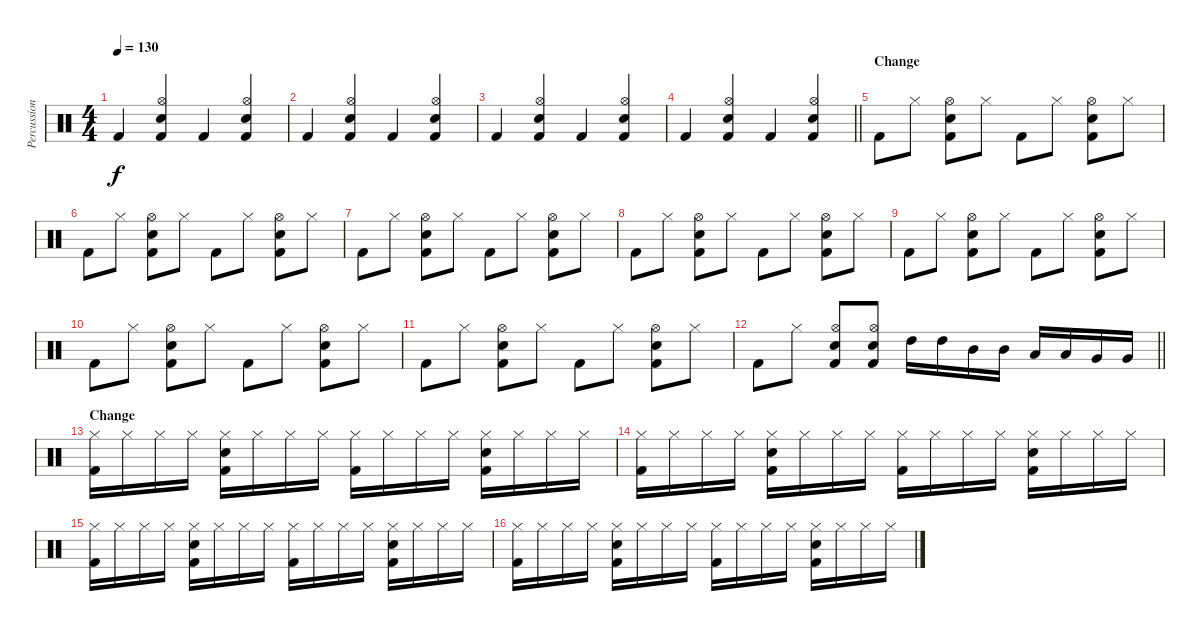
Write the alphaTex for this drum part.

\track ("Percussion" "Percussion") {instrument percussion}
\staff {score}
\articulation defaults
\ts (4 4)
\tempo 130
\clef neutral
\ks c "Kick (hit) 2".4{dy f}
("Hi-Hat (open)" "Electric Snare (hit)" "Kick (hit) 2").4 "Kick (hit) 2".4 ("Hi-Hat (open)" "Electric Snare (hit)" "Kick (hit) 2").4 |
"Kick (hit) 2".4 ("Hi-Hat (open)" "Electric Snare (hit)" "Kick (hit) 2").4 "Kick (hit) 2".4 ("Hi-Hat (open)" "Electric Snare (hit)" "Kick (hit) 2").4 |
"Kick (hit) 2".4 ("Hi-Hat (open)" "Electric Snare (hit)" "Kick (hit) 2").4 "Kick (hit) 2".4 ("Hi-Hat (open)" "Electric Snare (hit)" "Kick (hit) 2").4 |
\barLineRight lightlight "Kick (hit) 2".4
("Hi-Hat (open)" "Electric Snare (hit)" "Kick (hit) 2").4 "Kick (hit) 2".4 ("Hi-Hat (open)" "Electric Snare (hit)" "Kick (hit) 2").4 |
\section ("" "Change")
"Kick (hit) 2".8 "Hi-Hat (closed)".8 ("Hi-Hat (open)" "Electric Snare (hit)" "Kick (hit) 2").8 "Hi-Hat (closed)".8 "Kick (hit) 2".8 "Hi-Hat (closed)".8 ("Hi-Hat (open)" "Electric Snare (hit)" "Kick (hit) 2").8 "Hi-Hat (closed)".8 |
"Kick (hit) 2".8 "Hi-Hat (closed)".8 ("Hi-Hat (open)" "Electric Snare (hit)" "Kick (hit) 2").8 "Hi-Hat (closed)".8 "Kick (hit) 2".8 "Hi-Hat (closed)".8 ("Hi-Hat (open)" "Electric Snare (hit)" "Kick (hit) 2").8 "Hi-Hat (closed)".8 |
"Kick (hit) 2".8 "Hi-Hat (closed)".8 ("Hi-Hat (open)" "Electric Snare (hit)" "Kick (hit) 2").8 "Hi-Hat (closed)".8 "Kick (hit) 2".8 "Hi-Hat (closed)".8 ("Hi-Hat (open)" "Electric Snare (hit)" "Kick (hit) 2").8 "Hi-Hat (closed)".8 |
"Kick (hit) 2".8 "Hi-Hat (closed)".8 ("Hi-Hat (open)" "Electric Snare (hit)" "Kick (hit) 2").8 "Hi-Hat (closed)".8 "Kick (hit) 2".8 "Hi-Hat (closed)".8 ("Hi-Hat (open)" "Electric Snare (hit)" "Kick (hit) 2").8 "Hi-Hat (closed)".8 |
"Kick (hit) 2".8 "Hi-Hat (closed)".8 ("Hi-Hat (open)" "Electric Snare (hit)" "Kick (hit) 2").8 "Hi-Hat (closed)".8 "Kick (hit) 2".8 "Hi-Hat (closed)".8 ("Hi-Hat (open)" "Electric Snare (hit)" "Kick (hit) 2").8 "Hi-Hat (closed)".8 |
"Kick (hit) 2".8 "Hi-Hat (closed)".8 ("Hi-Hat (open)" "Electric Snare (hit)" "Kick (hit) 2").8 "Hi-Hat (closed)".8 "Kick (hit) 2".8 "Hi-Hat (closed)".8 ("Hi-Hat (open)" "Electric Snare (hit)" "Kick (hit) 2").8 "Hi-Hat (closed)".8 |
"Kick (hit) 2".8 "Hi-Hat (closed)".8 ("Hi-Hat (open)" "Electric Snare (hit)" "Kick (hit) 2").8 "Hi-Hat (closed)".8 "Kick (hit) 2".8 "Hi-Hat (closed)".8 ("Hi-Hat (open)" "Electric Snare (hit)" "Kick (hit) 2").8 "Hi-Hat (closed)".8 |
\barLineRight lightlight "Kick (hit) 2".8 "Hi-Hat (closed)".8
("Hi-Hat (open)" "Electric Snare (hit)" "Kick (hit) 2").8 ("Hi-Hat (open)" "Electric Snare (hit)" "Kick (hit) 2").8 "High Tom (hit)".16 "High Tom (hit)".16 "Mid Tom (hit)".16 "Mid Tom (hit)".16 "Low Tom (hit)".16 "Low Tom (hit)".16 "Very Low Tom (hit)".16 "Very Low Tom (hit)".16 |
\section ("" "Change")
("Hi-Hat (closed)" "Kick (hit) 2").16 "Hi-Hat (closed)".16 "Hi-Hat (closed)".16 "Hi-Hat (closed)".16 ("Hi-Hat (closed)" "Electric Snare (hit)" "Kick (hit) 2").16 "Hi-Hat (closed)".16 "Hi-Hat (closed)".16 "Hi-Hat (closed)".16 ("Hi-Hat (closed)" "Kick (hit) 2").16 "Hi-Hat (closed)".16 "Hi-Hat (closed)".16 "Hi-Hat (closed)".16 ("Hi-Hat (closed)" "Electric Snare (hit)" "Kick (hit) 2").16 "Hi-Hat (closed)".16 "Hi-Hat (closed)".16 "Hi-Hat (closed)".16 |
("Hi-Hat (closed)" "Kick (hit) 2").16 "Hi-Hat (closed)".16 "Hi-Hat (closed)".16 "Hi-Hat (closed)".16 ("Hi-Hat (closed)" "Electric Snare (hit)" "Kick (hit) 2").16 "Hi-Hat (closed)".16 "Hi-Hat (closed)".16 "Hi-Hat (closed)".16 ("Hi-Hat (closed)" "Kick (hit) 2").16 "Hi-Hat (closed)".16 "Hi-Hat (closed)".16 "Hi-Hat (closed)".16 ("Hi-Hat (closed)" "Electric Snare (hit)" "Kick (hit) 2").16 "Hi-Hat (closed)".16 "Hi-Hat (closed)".16 "Hi-Hat (closed)".16 |
("Hi-Hat (closed)" "Kick (hit) 2").16 "Hi-Hat (closed)".16 "Hi-Hat (closed)".16 "Hi-Hat (closed)".16 ("Hi-Hat (closed)" "Electric Snare (hit)" "Kick (hit) 2").16 "Hi-Hat (closed)".16 "Hi-Hat (closed)".16 "Hi-Hat (closed)".16 ("Hi-Hat (closed)" "Kick (hit) 2").16 "Hi-Hat (closed)".16 "Hi-Hat (closed)".16 "Hi-Hat (closed)".16 ("Hi-Hat (closed)" "Electric Snare (hit)" "Kick (hit) 2").16 "Hi-Hat (closed)".16 "Hi-Hat (closed)".16 "Hi-Hat (closed)".16 |
("Hi-Hat (closed)" "Kick (hit) 2").16 "Hi-Hat (closed)".16 "Hi-Hat (closed)".16 "Hi-Hat (closed)".16 ("Hi-Hat (closed)" "Electric Snare (hit)" "Kick (hit) 2").16 "Hi-Hat (closed)".16 "Hi-Hat (closed)".16 "Hi-Hat (closed)".16 ("Hi-Hat (closed)" "Kick (hit) 2").16 "Hi-Hat (closed)".16 "Hi-Hat (closed)".16 "Hi-Hat (closed)".16 ("Hi-Hat (closed)" "Electric Snare (hit)" "Kick (hit) 2").16 "Hi-Hat (closed)".16 "Hi-Hat (closed)".16 "Hi-Hat (closed)".16
